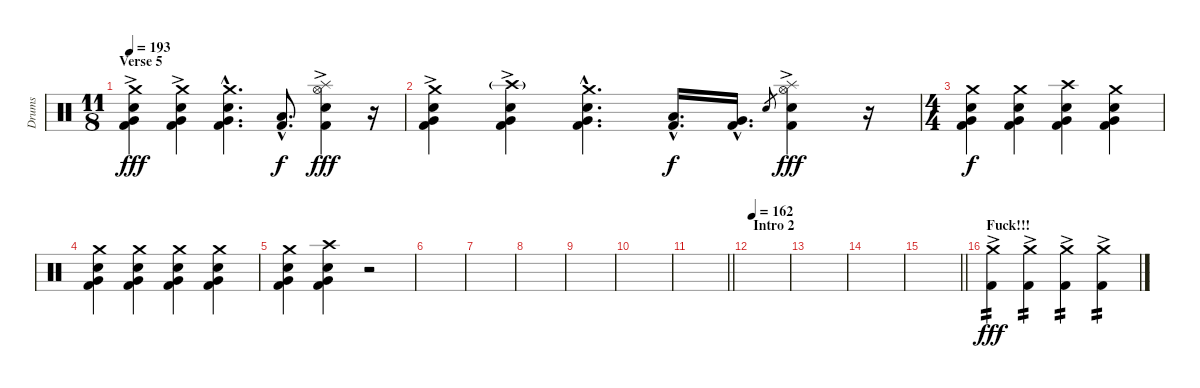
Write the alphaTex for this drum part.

\track ("Drums" "Drums") {instrument percussion}
\staff {score}
\articulation defaults
\ts (11 8)
\section ("" "Verse 5")
\tempo 193
\clef neutral
\ks c
("Crash medium (hit)" "Electric Snare (hit)" "Very Low Tom (hit)"{ac} "Kick (hit) 2"{ac}).4{dy fff} ("Crash medium (hit)" "Electric Snare (hit)" "Very Low Tom (hit)"{ac} "Kick (hit) 2"{ac}).4 ("Crash medium (hit)"{hac} "Electric Snare (hit)"{hac} "Very Low Tom (hit)"{hac} "Kick (hit) 2"{hac}).4{d} ("Low Floor Tom (hit)"{hac} "Kick (hit) 2"{hac}).8{d dy f} ("Splash (hit)" "Hi-Hat (open)"{ac} "Electric Snare (hit)" "Kick (hit) 2").4{dy fff} r.16 |
("Crash medium (hit)" "Electric Snare (hit)" "Very Low Tom (hit)"{ac} "Kick (hit) 2"{ac}).4 ("Crash high (hit)"{g} "Electric Snare (hit)" "Very Low Tom (hit)"{ac} "Kick (hit) 2"{ac}).4 ("Crash medium (hit)"{hac} "Electric Snare (hit)"{hac} "Very Low Tom (hit)"{hac} "Kick (hit) 2"{hac}).4{d} ("Low Floor Tom (hit)"{hac} "Kick (hit) 2"{hac}).16{d dy f} ("Very Low Tom (hit)"{hac} "Kick (hit) 2"{hac}).16{d} "Electric Snare (hit)".8{gr} ("Splash (hit)"{ac} "Hi-Hat (open)" "Electric Snare (hit)" "Kick (hit) 2").4{dy fff} r.16 |
\ts (4 4)
("Crash medium (hit)" "Electric Snare (hit)" "Very Low Tom (hit)" "Kick (hit) 2").4{dy f} ("Crash medium (hit)" "Electric Snare (hit)" "Very Low Tom (hit)" "Kick (hit) 2").4 ("Crash high (hit)" "Electric Snare (hit)" "Very Low Tom (hit)" "Kick (hit) 2").4 ("Crash medium (hit)" "Electric Snare (hit)" "Very Low Tom (hit)" "Kick (hit) 2").4 |
("Crash medium (hit)" "Electric Snare (hit)" "Very Low Tom (hit)" "Kick (hit) 2").4 ("Crash medium (hit)" "Electric Snare (hit)" "Very Low Tom (hit)" "Kick (hit) 2").4 ("Crash medium (hit)" "Electric Snare (hit)" "Very Low Tom (hit)" "Kick (hit) 2").4 ("Crash medium (hit)" "Electric Snare (hit)" "Very Low Tom (hit)" "Kick (hit) 2").4 |
("Crash medium (hit)" "Electric Snare (hit)" "Very Low Tom (hit)" "Kick (hit) 2").4 ("Crash high (hit)" "Electric Snare (hit)" "Very Low Tom (hit)" "Kick (hit) 2").4 r.2 |
|
|
|
|
|
\barLineRight lightlight
|
\section ("" "Intro 2")
\tempo 162
|
|
|
\barLineRight lightlight
|
\section ("" "Fuck!!!")
("Crash medium (hit)" "Kick (hit) 2"{ac}).4{tp 2 dy fff} ("Crash medium (hit)" "Kick (hit) 2"{ac}).4{tp 2} ("Crash medium (hit)" "Kick (hit) 2"{ac}).4{tp 2} ("Crash medium (hit)" "Kick (hit) 2"{ac}).4{tp 2}
